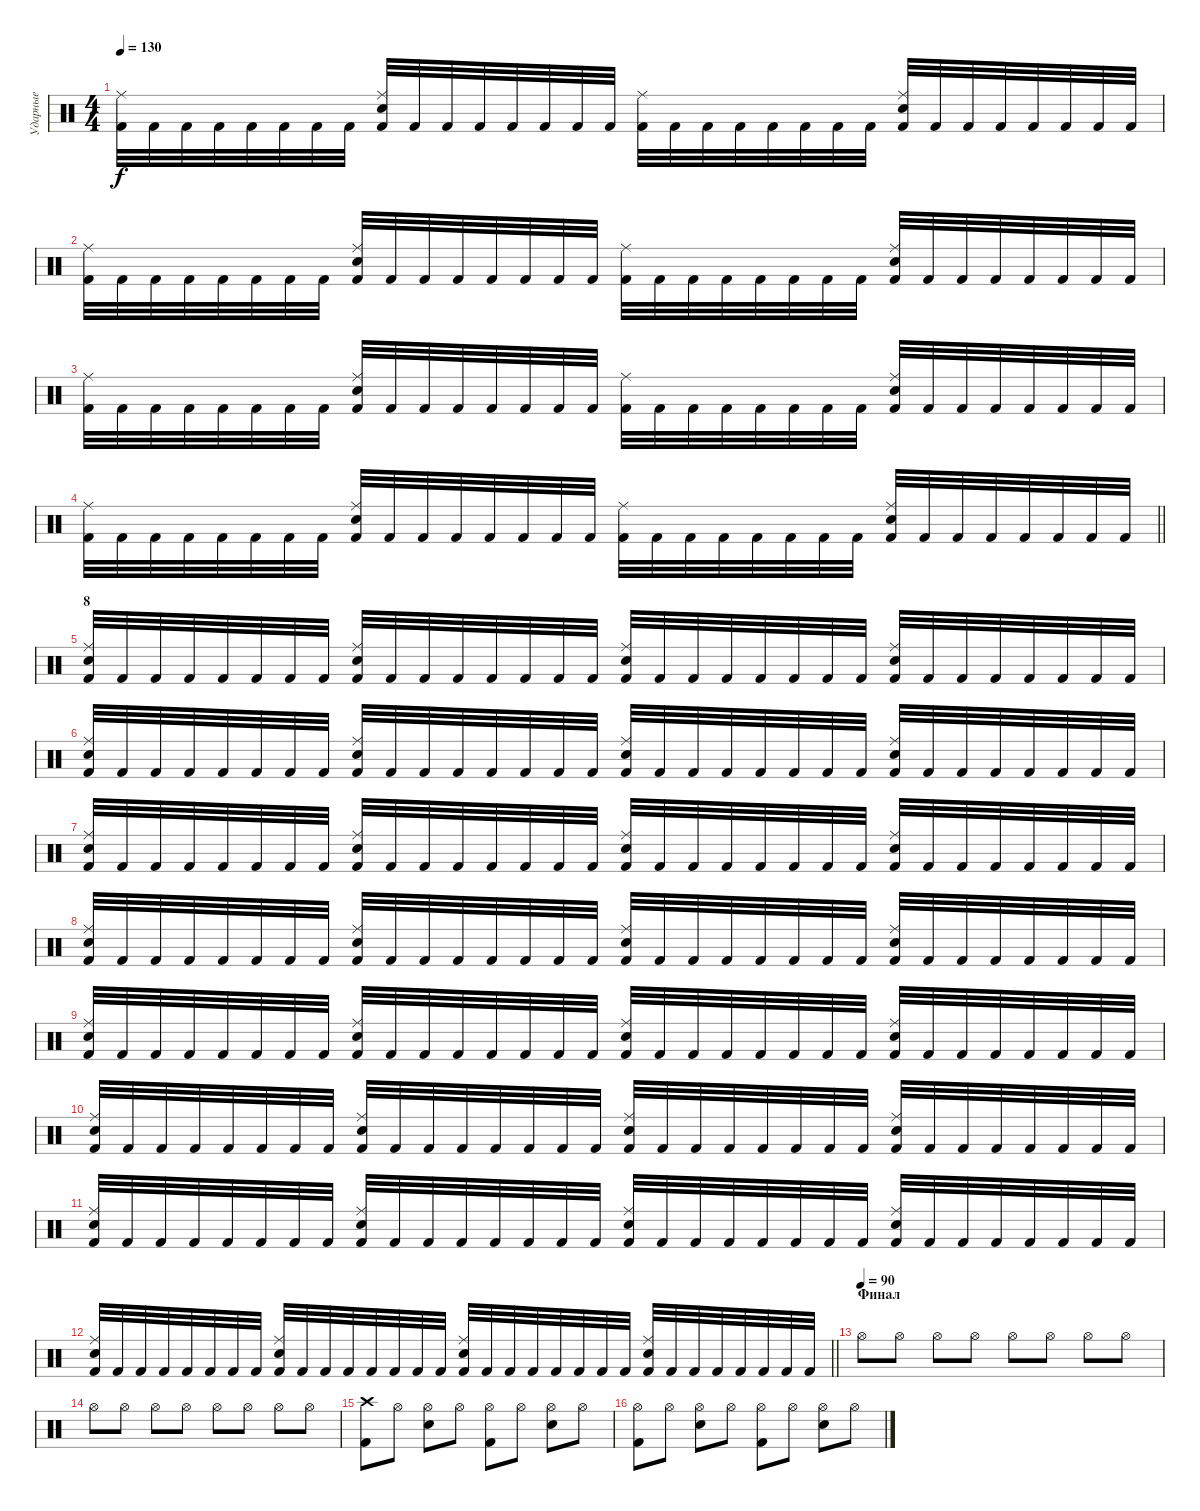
\track ("Ударные" "Ударные") {instrument percussion}
\staff {score}
\articulation defaults
\ts (4 4)
\tempo 130
\clef neutral
\ks c
("Kick (hit) 2" "Ride (middle)").32{dy f} "Kick (hit) 2".32 "Kick (hit) 2".32 "Kick (hit) 2".32 "Kick (hit) 2".32 "Kick (hit) 2".32 "Kick (hit) 2".32 "Kick (hit) 2".32 ("Kick (hit) 2" "Electric Snare (hit)" "Ride (middle)").32 "Kick (hit) 2".32 "Kick (hit) 2".32 "Kick (hit) 2".32 "Kick (hit) 2".32 "Kick (hit) 2".32 "Kick (hit) 2".32 "Kick (hit) 2".32 ("Kick (hit) 2" "Ride (middle)").32 "Kick (hit) 2".32 "Kick (hit) 2".32 "Kick (hit) 2".32 "Kick (hit) 2".32 "Kick (hit) 2".32 "Kick (hit) 2".32 "Kick (hit) 2".32 ("Kick (hit) 2" "Electric Snare (hit)" "Ride (middle)").32 "Kick (hit) 2".32 "Kick (hit) 2".32 "Kick (hit) 2".32 "Kick (hit) 2".32 "Kick (hit) 2".32 "Kick (hit) 2".32 "Kick (hit) 2".32 |
("Kick (hit) 2" "Ride (middle)").32 "Kick (hit) 2".32 "Kick (hit) 2".32 "Kick (hit) 2".32 "Kick (hit) 2".32 "Kick (hit) 2".32 "Kick (hit) 2".32 "Kick (hit) 2".32 ("Kick (hit) 2" "Electric Snare (hit)" "Ride (middle)").32 "Kick (hit) 2".32 "Kick (hit) 2".32 "Kick (hit) 2".32 "Kick (hit) 2".32 "Kick (hit) 2".32 "Kick (hit) 2".32 "Kick (hit) 2".32 ("Kick (hit) 2" "Ride (middle)").32 "Kick (hit) 2".32 "Kick (hit) 2".32 "Kick (hit) 2".32 "Kick (hit) 2".32 "Kick (hit) 2".32 "Kick (hit) 2".32 "Kick (hit) 2".32 ("Kick (hit) 2" "Electric Snare (hit)" "Ride (middle)").32 "Kick (hit) 2".32 "Kick (hit) 2".32 "Kick (hit) 2".32 "Kick (hit) 2".32 "Kick (hit) 2".32 "Kick (hit) 2".32 "Kick (hit) 2".32 |
("Kick (hit) 2" "Ride (middle)").32 "Kick (hit) 2".32 "Kick (hit) 2".32 "Kick (hit) 2".32 "Kick (hit) 2".32 "Kick (hit) 2".32 "Kick (hit) 2".32 "Kick (hit) 2".32 ("Kick (hit) 2" "Electric Snare (hit)" "Ride (middle)").32 "Kick (hit) 2".32 "Kick (hit) 2".32 "Kick (hit) 2".32 "Kick (hit) 2".32 "Kick (hit) 2".32 "Kick (hit) 2".32 "Kick (hit) 2".32 ("Kick (hit) 2" "Ride (middle)").32 "Kick (hit) 2".32 "Kick (hit) 2".32 "Kick (hit) 2".32 "Kick (hit) 2".32 "Kick (hit) 2".32 "Kick (hit) 2".32 "Kick (hit) 2".32 ("Kick (hit) 2" "Electric Snare (hit)" "Ride (middle)").32 "Kick (hit) 2".32 "Kick (hit) 2".32 "Kick (hit) 2".32 "Kick (hit) 2".32 "Kick (hit) 2".32 "Kick (hit) 2".32 "Kick (hit) 2".32 |
\barLineRight lightlight
("Kick (hit) 2" "Ride (middle)").32 "Kick (hit) 2".32 "Kick (hit) 2".32 "Kick (hit) 2".32 "Kick (hit) 2".32 "Kick (hit) 2".32 "Kick (hit) 2".32 "Kick (hit) 2".32 ("Kick (hit) 2" "Electric Snare (hit)" "Ride (middle)").32 "Kick (hit) 2".32 "Kick (hit) 2".32 "Kick (hit) 2".32 "Kick (hit) 2".32 "Kick (hit) 2".32 "Kick (hit) 2".32 "Kick (hit) 2".32 ("Kick (hit) 2" "Ride (middle)").32 "Kick (hit) 2".32 "Kick (hit) 2".32 "Kick (hit) 2".32 "Kick (hit) 2".32 "Kick (hit) 2".32 "Kick (hit) 2".32 "Kick (hit) 2".32 ("Kick (hit) 2" "Electric Snare (hit)" "Ride (middle)").32 "Kick (hit) 2".32 "Kick (hit) 2".32 "Kick (hit) 2".32 "Kick (hit) 2".32 "Kick (hit) 2".32 "Kick (hit) 2".32 "Kick (hit) 2".32 |
\section ("" "8")
("Kick (hit) 2" "Ride (middle)" "Electric Snare (hit)").32 "Kick (hit) 2".32 "Kick (hit) 2".32 "Kick (hit) 2".32 "Kick (hit) 2".32 "Kick (hit) 2".32 "Kick (hit) 2".32 "Kick (hit) 2".32 ("Kick (hit) 2" "Electric Snare (hit)" "Ride (middle)").32 "Kick (hit) 2".32 "Kick (hit) 2".32 "Kick (hit) 2".32 "Kick (hit) 2".32 "Kick (hit) 2".32 "Kick (hit) 2".32 "Kick (hit) 2".32 ("Kick (hit) 2" "Ride (middle)" "Electric Snare (hit)").32 "Kick (hit) 2".32 "Kick (hit) 2".32 "Kick (hit) 2".32 "Kick (hit) 2".32 "Kick (hit) 2".32 "Kick (hit) 2".32 "Kick (hit) 2".32 ("Kick (hit) 2" "Electric Snare (hit)" "Ride (middle)").32 "Kick (hit) 2".32 "Kick (hit) 2".32 "Kick (hit) 2".32 "Kick (hit) 2".32 "Kick (hit) 2".32 "Kick (hit) 2".32 "Kick (hit) 2".32 |
("Kick (hit) 2" "Ride (middle)" "Electric Snare (hit)").32 "Kick (hit) 2".32 "Kick (hit) 2".32 "Kick (hit) 2".32 "Kick (hit) 2".32 "Kick (hit) 2".32 "Kick (hit) 2".32 "Kick (hit) 2".32 ("Kick (hit) 2" "Electric Snare (hit)" "Ride (middle)").32 "Kick (hit) 2".32 "Kick (hit) 2".32 "Kick (hit) 2".32 "Kick (hit) 2".32 "Kick (hit) 2".32 "Kick (hit) 2".32 "Kick (hit) 2".32 ("Kick (hit) 2" "Ride (middle)" "Electric Snare (hit)").32 "Kick (hit) 2".32 "Kick (hit) 2".32 "Kick (hit) 2".32 "Kick (hit) 2".32 "Kick (hit) 2".32 "Kick (hit) 2".32 "Kick (hit) 2".32 ("Kick (hit) 2" "Electric Snare (hit)" "Ride (middle)").32 "Kick (hit) 2".32 "Kick (hit) 2".32 "Kick (hit) 2".32 "Kick (hit) 2".32 "Kick (hit) 2".32 "Kick (hit) 2".32 "Kick (hit) 2".32 |
("Kick (hit) 2" "Ride (middle)" "Electric Snare (hit)").32 "Kick (hit) 2".32 "Kick (hit) 2".32 "Kick (hit) 2".32 "Kick (hit) 2".32 "Kick (hit) 2".32 "Kick (hit) 2".32 "Kick (hit) 2".32 ("Kick (hit) 2" "Electric Snare (hit)" "Ride (middle)").32 "Kick (hit) 2".32 "Kick (hit) 2".32 "Kick (hit) 2".32 "Kick (hit) 2".32 "Kick (hit) 2".32 "Kick (hit) 2".32 "Kick (hit) 2".32 ("Kick (hit) 2" "Ride (middle)" "Electric Snare (hit)").32 "Kick (hit) 2".32 "Kick (hit) 2".32 "Kick (hit) 2".32 "Kick (hit) 2".32 "Kick (hit) 2".32 "Kick (hit) 2".32 "Kick (hit) 2".32 ("Kick (hit) 2" "Electric Snare (hit)" "Ride (middle)").32 "Kick (hit) 2".32 "Kick (hit) 2".32 "Kick (hit) 2".32 "Kick (hit) 2".32 "Kick (hit) 2".32 "Kick (hit) 2".32 "Kick (hit) 2".32 |
("Kick (hit) 2" "Ride (middle)" "Electric Snare (hit)").32 "Kick (hit) 2".32 "Kick (hit) 2".32 "Kick (hit) 2".32 "Kick (hit) 2".32 "Kick (hit) 2".32 "Kick (hit) 2".32 "Kick (hit) 2".32 ("Kick (hit) 2" "Electric Snare (hit)" "Ride (middle)").32 "Kick (hit) 2".32 "Kick (hit) 2".32 "Kick (hit) 2".32 "Kick (hit) 2".32 "Kick (hit) 2".32 "Kick (hit) 2".32 "Kick (hit) 2".32 ("Kick (hit) 2" "Ride (middle)" "Electric Snare (hit)").32 "Kick (hit) 2".32 "Kick (hit) 2".32 "Kick (hit) 2".32 "Kick (hit) 2".32 "Kick (hit) 2".32 "Kick (hit) 2".32 "Kick (hit) 2".32 ("Kick (hit) 2" "Electric Snare (hit)" "Ride (middle)").32 "Kick (hit) 2".32 "Kick (hit) 2".32 "Kick (hit) 2".32 "Kick (hit) 2".32 "Kick (hit) 2".32 "Kick (hit) 2".32 "Kick (hit) 2".32 |
("Kick (hit) 2" "Ride (middle)" "Electric Snare (hit)").32 "Kick (hit) 2".32 "Kick (hit) 2".32 "Kick (hit) 2".32 "Kick (hit) 2".32 "Kick (hit) 2".32 "Kick (hit) 2".32 "Kick (hit) 2".32 ("Kick (hit) 2" "Electric Snare (hit)" "Ride (middle)").32 "Kick (hit) 2".32 "Kick (hit) 2".32 "Kick (hit) 2".32 "Kick (hit) 2".32 "Kick (hit) 2".32 "Kick (hit) 2".32 "Kick (hit) 2".32 ("Kick (hit) 2" "Ride (middle)" "Electric Snare (hit)").32 "Kick (hit) 2".32 "Kick (hit) 2".32 "Kick (hit) 2".32 "Kick (hit) 2".32 "Kick (hit) 2".32 "Kick (hit) 2".32 "Kick (hit) 2".32 ("Kick (hit) 2" "Electric Snare (hit)" "Ride (middle)").32 "Kick (hit) 2".32 "Kick (hit) 2".32 "Kick (hit) 2".32 "Kick (hit) 2".32 "Kick (hit) 2".32 "Kick (hit) 2".32 "Kick (hit) 2".32 |
("Kick (hit) 2" "Ride (middle)" "Electric Snare (hit)").32 "Kick (hit) 2".32 "Kick (hit) 2".32 "Kick (hit) 2".32 "Kick (hit) 2".32 "Kick (hit) 2".32 "Kick (hit) 2".32 "Kick (hit) 2".32 ("Kick (hit) 2" "Electric Snare (hit)" "Ride (middle)").32 "Kick (hit) 2".32 "Kick (hit) 2".32 "Kick (hit) 2".32 "Kick (hit) 2".32 "Kick (hit) 2".32 "Kick (hit) 2".32 "Kick (hit) 2".32 ("Kick (hit) 2" "Ride (middle)" "Electric Snare (hit)").32 "Kick (hit) 2".32 "Kick (hit) 2".32 "Kick (hit) 2".32 "Kick (hit) 2".32 "Kick (hit) 2".32 "Kick (hit) 2".32 "Kick (hit) 2".32 ("Kick (hit) 2" "Electric Snare (hit)" "Ride (middle)").32 "Kick (hit) 2".32 "Kick (hit) 2".32 "Kick (hit) 2".32 "Kick (hit) 2".32 "Kick (hit) 2".32 "Kick (hit) 2".32 "Kick (hit) 2".32 |
("Kick (hit) 2" "Ride (middle)" "Electric Snare (hit)").32 "Kick (hit) 2".32 "Kick (hit) 2".32 "Kick (hit) 2".32 "Kick (hit) 2".32 "Kick (hit) 2".32 "Kick (hit) 2".32 "Kick (hit) 2".32 ("Kick (hit) 2" "Electric Snare (hit)" "Ride (middle)").32 "Kick (hit) 2".32 "Kick (hit) 2".32 "Kick (hit) 2".32 "Kick (hit) 2".32 "Kick (hit) 2".32 "Kick (hit) 2".32 "Kick (hit) 2".32 ("Kick (hit) 2" "Ride (middle)" "Electric Snare (hit)").32 "Kick (hit) 2".32 "Kick (hit) 2".32 "Kick (hit) 2".32 "Kick (hit) 2".32 "Kick (hit) 2".32 "Kick (hit) 2".32 "Kick (hit) 2".32 ("Kick (hit) 2" "Electric Snare (hit)" "Ride (middle)").32 "Kick (hit) 2".32 "Kick (hit) 2".32 "Kick (hit) 2".32 "Kick (hit) 2".32 "Kick (hit) 2".32 "Kick (hit) 2".32 "Kick (hit) 2".32 |
\barLineRight lightlight
("Kick (hit) 2" "Ride (middle)" "Electric Snare (hit)").32 "Kick (hit) 2".32 "Kick (hit) 2".32 "Kick (hit) 2".32 "Kick (hit) 2".32 "Kick (hit) 2".32 "Kick (hit) 2".32 "Kick (hit) 2".32 ("Kick (hit) 2" "Electric Snare (hit)" "Ride (middle)").32 "Kick (hit) 2".32 "Kick (hit) 2".32 "Kick (hit) 2".32 "Kick (hit) 2".32 "Kick (hit) 2".32 "Kick (hit) 2".32 "Kick (hit) 2".32 ("Kick (hit) 2" "Ride (middle)" "Electric Snare (hit)").32 "Kick (hit) 2".32 "Kick (hit) 2".32 "Kick (hit) 2".32 "Kick (hit) 2".32 "Kick (hit) 2".32 "Kick (hit) 2".32 "Kick (hit) 2".32 ("Kick (hit) 2" "Electric Snare (hit)" "Ride (middle)").32 "Kick (hit) 2".32 "Kick (hit) 2".32 "Kick (hit) 2".32 "Kick (hit) 2".32 "Kick (hit) 2".32 "Kick (hit) 2".32 "Kick (hit) 2".32 |
\section ("" "Финал")
\tempo (90)
"Hi-Hat (open)".8 "Hi-Hat (open)".8 "Hi-Hat (open)".8 "Hi-Hat (open)".8 "Hi-Hat (open)".8 "Hi-Hat (open)".8 "Hi-Hat (open)".8 "Hi-Hat (open)".8 |
"Hi-Hat (open)".8 "Hi-Hat (open)".8 "Hi-Hat (open)".8 "Hi-Hat (open)".8 "Hi-Hat (open)".8 "Hi-Hat (open)".8 "Hi-Hat (open)".8 "Hi-Hat (open)".8 |
("Crash high (hit)" "Kick (hit) 2").8 "Hi-Hat (open)".8 ("Hi-Hat (open)" "Electric Snare (hit)").8 "Hi-Hat (open)".8 ("Hi-Hat (open)" "Kick (hit) 2").8 "Hi-Hat (open)".8 ("Hi-Hat (open)" "Electric Snare (hit)").8 "Hi-Hat (open)".8 |
("Hi-Hat (open)" "Kick (hit) 2").8 "Hi-Hat (open)".8 ("Hi-Hat (open)" "Electric Snare (hit)").8 "Hi-Hat (open)".8 ("Hi-Hat (open)" "Kick (hit) 2").8 "Hi-Hat (open)".8 ("Hi-Hat (open)" "Electric Snare (hit)").8 "Hi-Hat (open)".8
